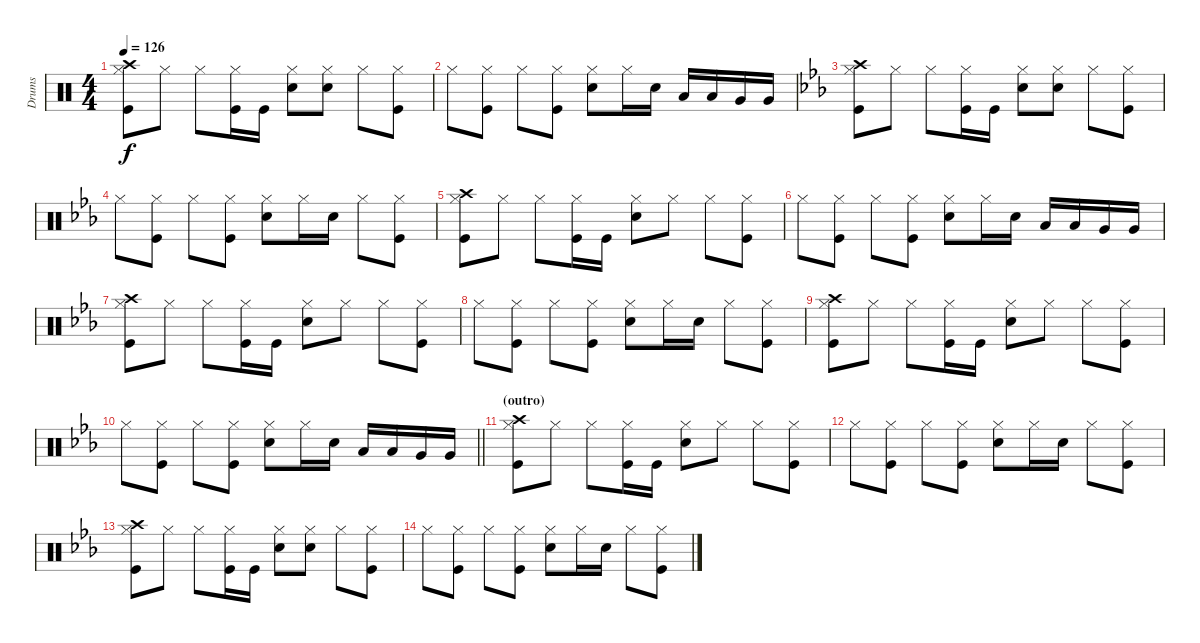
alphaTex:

\track ("Drums" "Drums") {instrument percussion}
\staff {score}
\articulation defaults
\ts (4 4)
\tempo 126
\clef neutral
\ks c
("Hi-Hat (closed)" "Crash high (hit)" "Kick (hit)").8{dy f} "Hi-Hat (closed)".8 "Hi-Hat (closed)".8 ("Hi-Hat (closed)" "Kick (hit)").16 "Kick (hit)".16 ("Hi-Hat (closed)" "Snare (hit) 2").8 ("Hi-Hat (closed)" "Snare (hit) 2").8 "Hi-Hat (closed)".8 ("Hi-Hat (closed)" "Kick (hit)").8 |
"Hi-Hat (closed)".8 ("Hi-Hat (closed)" "Kick (hit)").8 "Hi-Hat (closed)".8 ("Hi-Hat (closed)" "Kick (hit)").8 ("Hi-Hat (closed)" "Snare (hit) 2").8 "Hi-Hat (closed)".16 "Snare (hit) 2".16 "Low Tom (hit)".16 "Low Tom (hit)".16 "Very Low Tom (hit)".16 "Very Low Tom (hit)".16 |
\ks cminor
("Hi-Hat (closed)" "Crash high (hit)" "Kick (hit)").8 "Hi-Hat (closed)".8 "Hi-Hat (closed)".8 ("Hi-Hat (closed)" "Kick (hit)").16 "Kick (hit)".16 ("Hi-Hat (closed)" "Snare (hit) 2").8 ("Hi-Hat (closed)" "Snare (hit) 2").8 "Hi-Hat (closed)".8 ("Hi-Hat (closed)" "Kick (hit)").8 |
"Hi-Hat (closed)".8 ("Hi-Hat (closed)" "Kick (hit)").8 "Hi-Hat (closed)".8 ("Hi-Hat (closed)" "Kick (hit)").8 ("Hi-Hat (closed)" "Snare (hit) 2").8 "Hi-Hat (closed)".16 "Snare (hit) 2".16 "Hi-Hat (closed)".8 ("Hi-Hat (closed)" "Kick (hit)").8 |
("Hi-Hat (closed)" "Crash high (hit)" "Kick (hit)").8 "Hi-Hat (closed)".8 "Hi-Hat (closed)".8 ("Hi-Hat (closed)" "Kick (hit)").16 "Kick (hit)".16 ("Hi-Hat (closed)" "Snare (hit) 2").8 "Hi-Hat (closed)".8 "Hi-Hat (closed)".8 ("Hi-Hat (closed)" "Kick (hit)").8 |
"Hi-Hat (closed)".8 ("Hi-Hat (closed)" "Kick (hit)").8 "Hi-Hat (closed)".8 ("Hi-Hat (closed)" "Kick (hit)").8 ("Hi-Hat (closed)" "Snare (hit) 2").8 "Hi-Hat (closed)".16 "Snare (hit) 2".16 "Low Tom (hit)".16 "Low Tom (hit)".16 "Very Low Tom (hit)".16 "Very Low Tom (hit)".16 |
("Hi-Hat (closed)" "Crash high (hit)" "Kick (hit)").8 "Hi-Hat (closed)".8 "Hi-Hat (closed)".8 ("Hi-Hat (closed)" "Kick (hit)").16 "Kick (hit)".16 ("Hi-Hat (closed)" "Snare (hit) 2").8 "Hi-Hat (closed)".8 "Hi-Hat (closed)".8 ("Hi-Hat (closed)" "Kick (hit)").8 |
"Hi-Hat (closed)".8 ("Hi-Hat (closed)" "Kick (hit)").8 "Hi-Hat (closed)".8 ("Hi-Hat (closed)" "Kick (hit)").8 ("Hi-Hat (closed)" "Snare (hit) 2").8 "Hi-Hat (closed)".16 "Snare (hit) 2".16 "Hi-Hat (closed)".8 ("Hi-Hat (closed)" "Kick (hit)").8 |
("Hi-Hat (closed)" "Crash high (hit)" "Kick (hit)").8 "Hi-Hat (closed)".8 "Hi-Hat (closed)".8 ("Hi-Hat (closed)" "Kick (hit)").16 "Kick (hit)".16 ("Hi-Hat (closed)" "Snare (hit) 2").8 "Hi-Hat (closed)".8 "Hi-Hat (closed)".8 ("Hi-Hat (closed)" "Kick (hit)").8 |
\barLineRight lightlight "Hi-Hat (closed)".8
("Hi-Hat (closed)" "Kick (hit)").8 "Hi-Hat (closed)".8 ("Hi-Hat (closed)" "Kick (hit)").8 ("Hi-Hat (closed)" "Snare (hit) 2").8 "Hi-Hat (closed)".16 "Snare (hit) 2".16 "Low Tom (hit)".16 "Low Tom (hit)".16 "Very Low Tom (hit)".16 "Very Low Tom (hit)".16 |
\section ("" "(outro)")
("Hi-Hat (closed)" "Crash high (hit)" "Kick (hit)").8{volume 0} "Hi-Hat (closed)".8 "Hi-Hat (closed)".8 ("Hi-Hat (closed)" "Kick (hit)").16 "Kick (hit)".16 ("Hi-Hat (closed)" "Snare (hit) 2").8 "Hi-Hat (closed)".8 "Hi-Hat (closed)".8 ("Hi-Hat (closed)" "Kick (hit)").8 |
"Hi-Hat (closed)".8 ("Hi-Hat (closed)" "Kick (hit)").8 "Hi-Hat (closed)".8 ("Hi-Hat (closed)" "Kick (hit)").8 ("Hi-Hat (closed)" "Snare (hit) 2").8 "Hi-Hat (closed)".16 "Snare (hit) 2".16 "Hi-Hat (closed)".8 ("Hi-Hat (closed)" "Kick (hit)").8 |
("Hi-Hat (closed)" "Crash high (hit)" "Kick (hit)").8 "Hi-Hat (closed)".8 "Hi-Hat (closed)".8 ("Hi-Hat (closed)" "Kick (hit)").16 "Kick (hit)".16 ("Hi-Hat (closed)" "Snare (hit) 2").8 ("Hi-Hat (closed)" "Snare (hit) 2").8 "Hi-Hat (closed)".8 ("Hi-Hat (closed)" "Kick (hit)").8 |
"Hi-Hat (closed)".8 ("Hi-Hat (closed)" "Kick (hit)").8 "Hi-Hat (closed)".8 ("Hi-Hat (closed)" "Kick (hit)").8 ("Hi-Hat (closed)" "Snare (hit) 2").8 "Hi-Hat (closed)".16 "Snare (hit) 2".16 "Hi-Hat (closed)".8 ("Hi-Hat (closed)" "Kick (hit)").8
